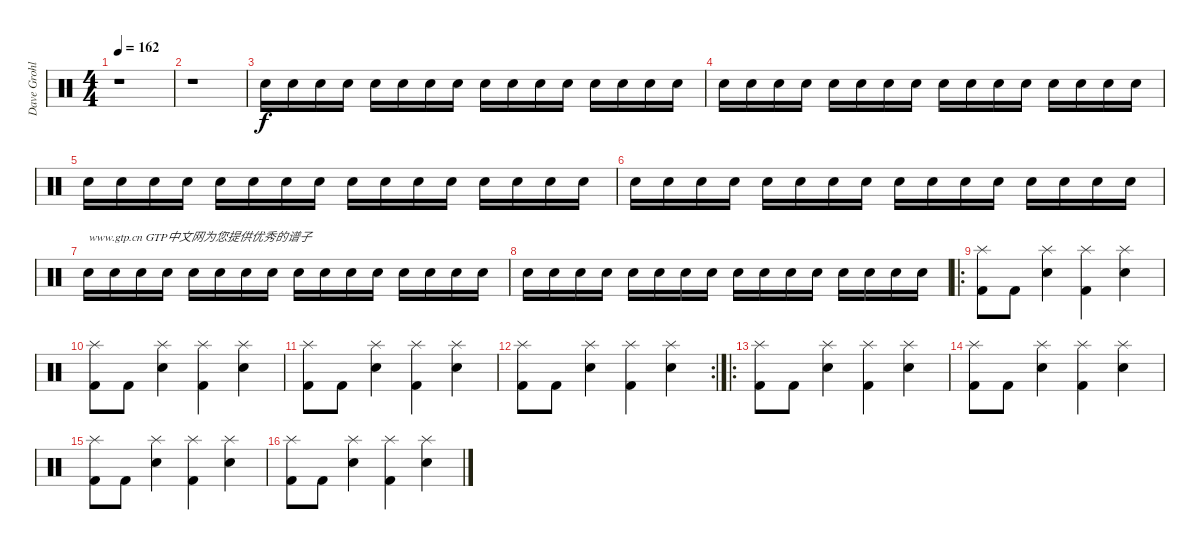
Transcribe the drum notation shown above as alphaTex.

\track ("Dave Grohl : Drums" "Dave Grohl") {instrument percussion}
\staff {score}
\articulation defaults
\ts (4 4)
\tempo 162
\clef neutral
\ks c
r.1{dy f} |
r.1 |
"Snare (hit) 2".16 "Snare (hit) 2".16 "Snare (hit) 2".16 "Snare (hit) 2".16 "Snare (hit) 2".16 "Snare (hit) 2".16 "Snare (hit) 2".16 "Snare (hit) 2".16 "Snare (hit) 2".16 "Snare (hit) 2".16 "Snare (hit) 2".16 "Snare (hit) 2".16 "Snare (hit) 2".16 "Snare (hit) 2".16 "Snare (hit) 2".16 "Snare (hit) 2".16 |
"Snare (hit) 2".16 "Snare (hit) 2".16 "Snare (hit) 2".16 "Snare (hit) 2".16 "Snare (hit) 2".16 "Snare (hit) 2".16 "Snare (hit) 2".16 "Snare (hit) 2".16 "Snare (hit) 2".16 "Snare (hit) 2".16 "Snare (hit) 2".16 "Snare (hit) 2".16 "Snare (hit) 2".16 "Snare (hit) 2".16 "Snare (hit) 2".16 "Snare (hit) 2".16 |
"Snare (hit) 2".16 "Snare (hit) 2".16 "Snare (hit) 2".16 "Snare (hit) 2".16 "Snare (hit) 2".16 "Snare (hit) 2".16 "Snare (hit) 2".16 "Snare (hit) 2".16 "Snare (hit) 2".16 "Snare (hit) 2".16 "Snare (hit) 2".16 "Snare (hit) 2".16 "Snare (hit) 2".16 "Snare (hit) 2".16 "Snare (hit) 2".16 "Snare (hit) 2".16 |
"Snare (hit) 2".16 "Snare (hit) 2".16 "Snare (hit) 2".16 "Snare (hit) 2".16 "Snare (hit) 2".16 "Snare (hit) 2".16 "Snare (hit) 2".16 "Snare (hit) 2".16 "Snare (hit) 2".16 "Snare (hit) 2".16 "Snare (hit) 2".16 "Snare (hit) 2".16 "Snare (hit) 2".16 "Snare (hit) 2".16 "Snare (hit) 2".16 "Snare (hit) 2".16 |
"Snare (hit) 2".16{txt "www.gtp.cn GTP中文网为您提供优秀的谱子"} "Snare (hit) 2".16 "Snare (hit) 2".16 "Snare (hit) 2".16 "Snare (hit) 2".16 "Snare (hit) 2".16 "Snare (hit) 2".16 "Snare (hit) 2".16 "Snare (hit) 2".16 "Snare (hit) 2".16 "Snare (hit) 2".16 "Snare (hit) 2".16 "Snare (hit) 2".16 "Snare (hit) 2".16 "Snare (hit) 2".16 "Snare (hit) 2".16 |
"Snare (hit) 2".16 "Snare (hit) 2".16 "Snare (hit) 2".16 "Snare (hit) 2".16 "Snare (hit) 2".16 "Snare (hit) 2".16 "Snare (hit) 2".16 "Snare (hit) 2".16 "Snare (hit) 2".16 "Snare (hit) 2".16 "Snare (hit) 2".16 "Snare (hit) 2".16 "Snare (hit) 2".16 "Snare (hit) 2".16 "Snare (hit) 2".16 "Snare (hit) 2".16 |
\ro
("Splash (hit)" "Kick (hit) 2").8 "Kick (hit) 2".8 ("Splash (hit)" "Snare (hit) 2").4 ("Splash (hit)" "Kick (hit) 2").4 ("Splash (hit)" "Snare (hit) 2").4 |
("Splash (hit)" "Kick (hit) 2").8 "Kick (hit) 2".8 ("Splash (hit)" "Snare (hit) 2").4 ("Splash (hit)" "Kick (hit) 2").4 ("Splash (hit)" "Snare (hit) 2").4 |
("Splash (hit)" "Kick (hit) 2").8 "Kick (hit) 2".8 ("Splash (hit)" "Snare (hit) 2").4 ("Splash (hit)" "Kick (hit) 2").4 ("Splash (hit)" "Snare (hit) 2").4 |
\rc 2
("Splash (hit)" "Kick (hit) 2").8 "Kick (hit) 2".8 ("Splash (hit)" "Snare (hit) 2").4 ("Splash (hit)" "Kick (hit) 2").4 ("Splash (hit)" "Snare (hit) 2").4 |
\ro
("Splash (hit)" "Kick (hit) 2").8 "Kick (hit) 2".8 ("Splash (hit)" "Snare (hit) 2").4 ("Splash (hit)" "Kick (hit) 2").4 ("Splash (hit)" "Snare (hit) 2").4 |
("Splash (hit)" "Kick (hit) 2").8 "Kick (hit) 2".8 ("Splash (hit)" "Snare (hit) 2").4 ("Splash (hit)" "Kick (hit) 2").4 ("Splash (hit)" "Snare (hit) 2").4 |
("Splash (hit)" "Kick (hit) 2").8 "Kick (hit) 2".8 ("Splash (hit)" "Snare (hit) 2").4 ("Splash (hit)" "Kick (hit) 2").4 ("Splash (hit)" "Snare (hit) 2").4 |
("Splash (hit)" "Kick (hit) 2").8 "Kick (hit) 2".8 ("Splash (hit)" "Snare (hit) 2").4 ("Splash (hit)" "Kick (hit) 2").4 ("Splash (hit)" "Snare (hit) 2").4
